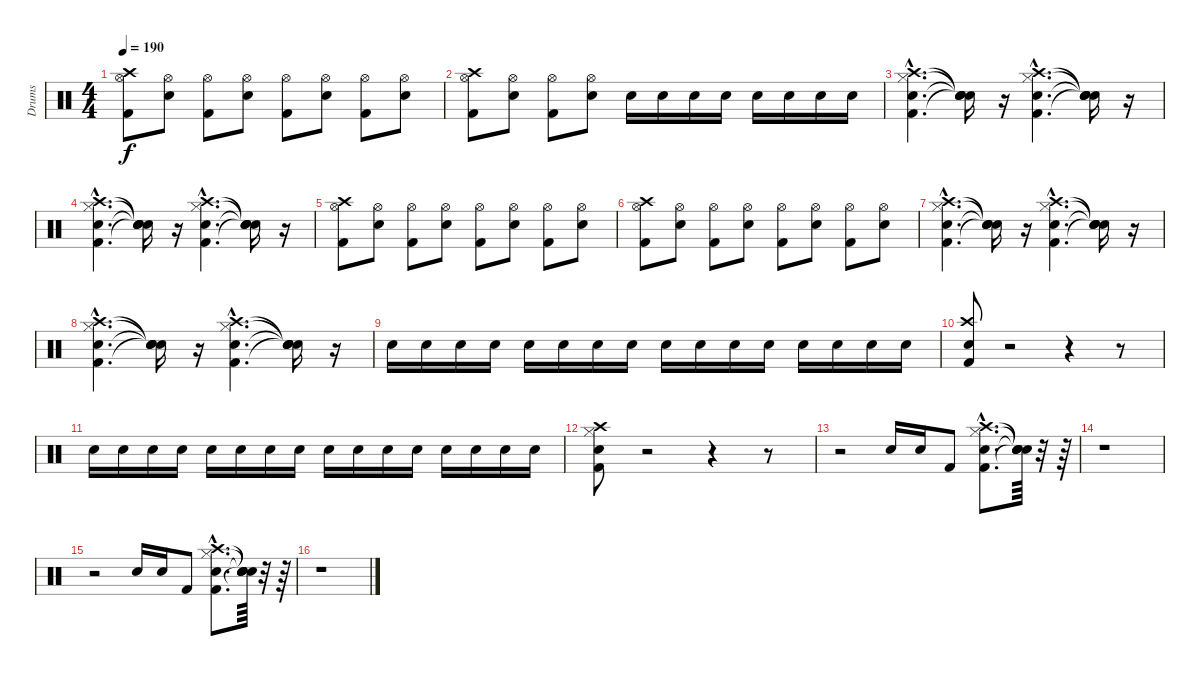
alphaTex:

\track ("Drums" "Drums") {instrument percussion}
\staff {score}
\articulation defaults
\ts (4 4)
\tempo 190
\clef neutral
\ks c
("Kick (hit) 2" "Hi-Hat (open)" "Crash high (hit)").8{dy f} ("Snare (hit) 2" "Hi-Hat (open)").8 ("Kick (hit) 2" "Hi-Hat (open)").8 ("Snare (hit) 2" "Hi-Hat (open)").8 ("Kick (hit) 2" "Hi-Hat (open)").8 ("Snare (hit) 2" "Hi-Hat (open)").8 ("Kick (hit) 2" "Hi-Hat (open)").8 ("Snare (hit) 2" "Hi-Hat (open)").8 |
("Kick (hit) 2" "Hi-Hat (open)" "Crash high (hit)").8 ("Snare (hit) 2" "Hi-Hat (open)").8 ("Kick (hit) 2" "Hi-Hat (open)").8 ("Snare (hit) 2" "Hi-Hat (open)").8 "Snare (hit) 2".16 "Snare (hit) 2".16 "Snare (hit) 2".16 "Snare (hit) 2".16 "Snare (hit) 2".16 "Snare (hit) 2".16 "Snare (hit) 2".16 "Snare (hit) 2".16 |
("Kick (hit) 2"{hac} "Snare (hit) 2"{hac} "Hi-Hat (closed)"{hac} "Crash high (hit)"{hac}).4{d} ("Snare (hit)"{t} "Snare (hit)"{t} "Snare (hit)"{t} "Snare (hit)"{t}).16 r.16 ("Kick (hit) 2"{hac} "Snare (hit) 2"{hac} "Hi-Hat (closed)"{hac} "Crash high (hit)"{hac}).4{d} ("Snare (hit)"{t} "Snare (hit)"{t} "Snare (hit)"{t} "Snare (hit)"{t}).16 r.16 |
("Kick (hit) 2"{hac} "Snare (hit) 2"{hac} "Hi-Hat (closed)"{hac} "Crash high (hit)"{hac}).4{d} ("Snare (hit)"{t} "Snare (hit)"{t} "Snare (hit)"{t} "Snare (hit)"{t}).16 r.16 ("Kick (hit) 2"{hac} "Snare (hit) 2"{hac} "Hi-Hat (closed)"{hac} "Crash high (hit)"{hac}).4{d} ("Snare (hit)"{t} "Snare (hit)"{t} "Snare (hit)"{t} "Snare (hit)"{t}).16 r.16 |
("Kick (hit) 2" "Hi-Hat (open)" "Crash high (hit)").8 ("Snare (hit) 2" "Hi-Hat (open)").8 ("Kick (hit) 2" "Hi-Hat (open)").8 ("Snare (hit) 2" "Hi-Hat (open)").8 ("Kick (hit) 2" "Hi-Hat (open)").8 ("Snare (hit) 2" "Hi-Hat (open)").8 ("Kick (hit) 2" "Hi-Hat (open)").8 ("Snare (hit) 2" "Hi-Hat (open)").8 |
("Kick (hit) 2" "Hi-Hat (open)" "Crash high (hit)").8 ("Snare (hit) 2" "Hi-Hat (open)").8 ("Kick (hit) 2" "Hi-Hat (open)").8 ("Snare (hit) 2" "Hi-Hat (open)").8 ("Kick (hit) 2" "Hi-Hat (open)").8 ("Snare (hit) 2" "Hi-Hat (open)").8 ("Kick (hit) 2" "Hi-Hat (open)").8 ("Snare (hit) 2" "Hi-Hat (open)").8 |
("Kick (hit) 2"{hac} "Snare (hit) 2"{hac} "Hi-Hat (closed)"{hac} "Crash high (hit)"{hac}).4{d} ("Snare (hit)"{t} "Snare (hit)"{t} "Snare (hit)"{t} "Snare (hit)"{t}).16 r.16 ("Kick (hit) 2"{hac} "Snare (hit) 2"{hac} "Hi-Hat (closed)"{hac} "Crash high (hit)"{hac}).4{d} ("Snare (hit)"{t} "Snare (hit)"{t} "Snare (hit)"{t} "Snare (hit)"{t}).16 r.16 |
("Kick (hit) 2"{hac} "Snare (hit) 2"{hac} "Hi-Hat (closed)"{hac} "Crash high (hit)"{hac}).4{d} ("Snare (hit)"{t} "Snare (hit)"{t} "Snare (hit)"{t} "Snare (hit)"{t}).16 r.16 ("Kick (hit) 2"{hac} "Snare (hit) 2"{hac} "Hi-Hat (closed)"{hac} "Crash high (hit)"{hac}).4{d} ("Snare (hit)"{t} "Snare (hit)"{t} "Snare (hit)"{t} "Snare (hit)"{t}).16 r.16 |
"Snare (hit) 2".16 "Snare (hit) 2".16 "Snare (hit) 2".16 "Snare (hit) 2".16 "Snare (hit) 2".16 "Snare (hit) 2".16 "Snare (hit) 2".16 "Snare (hit) 2".16 "Snare (hit) 2".16 "Snare (hit) 2".16 "Snare (hit) 2".16 "Snare (hit) 2".16 "Snare (hit) 2".16 "Snare (hit) 2".16 "Snare (hit) 2".16 "Snare (hit) 2".16 |
("Kick (hit) 2" "Snare (hit) 2" "Crash high (hit)").8 r.2 r.4 r.8 |
"Snare (hit) 2".16 "Snare (hit) 2".16 "Snare (hit) 2".16 "Snare (hit) 2".16 "Snare (hit) 2".16 "Snare (hit) 2".16 "Snare (hit) 2".16 "Snare (hit) 2".16 "Snare (hit) 2".16 "Snare (hit) 2".16 "Snare (hit) 2".16 "Snare (hit) 2".16 "Snare (hit) 2".16 "Snare (hit) 2".16 "Snare (hit) 2".16 "Snare (hit) 2".16 |
("Kick (hit) 2" "Snare (hit) 2" "Hi-Hat (closed)" "Crash high (hit)").8 r.2 r.4 r.8 |
r.2 "Snare (hit) 2".16 "Snare (hit) 2".16 "Kick (hit) 2".8 ("Kick (hit) 2"{hac} "Snare (hit) 2"{hac} "Hi-Hat (closed)"{hac} "Crash high (hit)"{hac}).8{d} ("Snare (hit)"{t} "Snare (hit)"{t} "Snare (hit)"{t} "Snare (hit)"{t}).64 r.32 r.64 |
r.1 |
r.2 "Snare (hit) 2".16 "Snare (hit) 2".16 "Kick (hit) 2".8 ("Kick (hit) 2"{hac} "Snare (hit) 2"{hac} "Hi-Hat (closed)"{hac} "Crash high (hit)"{hac}).8{d} ("Snare (hit)"{t} "Snare (hit)"{t} "Snare (hit)"{t} "Snare (hit)"{t}).64 r.32 r.64 |
r.1
